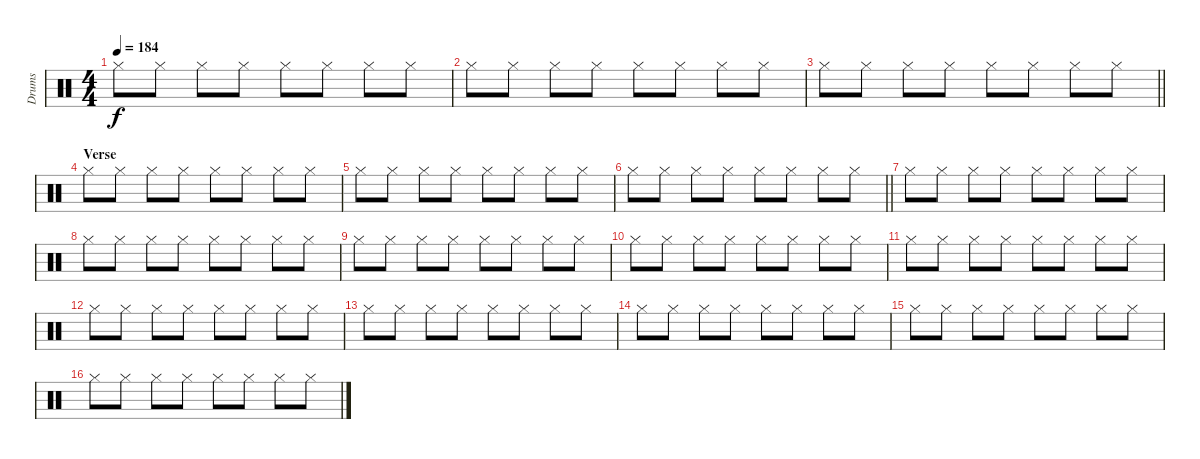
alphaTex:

\track ("Drums" "Drums") {instrument percussion}
\staff {score}
\articulation defaults
\ts (4 4)
\tempo 184
\clef neutral
\ks c "Hi-Hat (closed)".8{dy f} "Hi-Hat (closed)".8 "Hi-Hat (closed)".8 "Hi-Hat (closed)".8 "Hi-Hat (closed)".8 "Hi-Hat (closed)".8 "Hi-Hat (closed)".8 "Hi-Hat (closed)".8
|
"Hi-Hat (closed)".8 "Hi-Hat (closed)".8 "Hi-Hat (closed)".8 "Hi-Hat (closed)".8 "Hi-Hat (closed)".8 "Hi-Hat (closed)".8 "Hi-Hat (closed)".8 "Hi-Hat (closed)".8 |
\barLineRight lightlight "Hi-Hat (closed)".8 "Hi-Hat (closed)".8 "Hi-Hat (closed)".8 "Hi-Hat (closed)".8 "Hi-Hat (closed)".8 "Hi-Hat (closed)".8 "Hi-Hat (closed)".8 "Hi-Hat (closed)".8
|
\section ("" "Verse")
"Hi-Hat (closed)".8 "Hi-Hat (closed)".8 "Hi-Hat (closed)".8 "Hi-Hat (closed)".8 "Hi-Hat (closed)".8 "Hi-Hat (closed)".8 "Hi-Hat (closed)".8 "Hi-Hat (closed)".8 |
"Hi-Hat (closed)".8 "Hi-Hat (closed)".8 "Hi-Hat (closed)".8 "Hi-Hat (closed)".8 "Hi-Hat (closed)".8 "Hi-Hat (closed)".8 "Hi-Hat (closed)".8 "Hi-Hat (closed)".8 |
\barLineRight lightlight "Hi-Hat (closed)".8 "Hi-Hat (closed)".8 "Hi-Hat (closed)".8 "Hi-Hat (closed)".8 "Hi-Hat (closed)".8 "Hi-Hat (closed)".8 "Hi-Hat (closed)".8 "Hi-Hat (closed)".8
|
"Hi-Hat (closed)".8 "Hi-Hat (closed)".8 "Hi-Hat (closed)".8 "Hi-Hat (closed)".8 "Hi-Hat (closed)".8 "Hi-Hat (closed)".8 "Hi-Hat (closed)".8 "Hi-Hat (closed)".8 |
"Hi-Hat (closed)".8 "Hi-Hat (closed)".8 "Hi-Hat (closed)".8 "Hi-Hat (closed)".8 "Hi-Hat (closed)".8 "Hi-Hat (closed)".8 "Hi-Hat (closed)".8 "Hi-Hat (closed)".8 |
"Hi-Hat (closed)".8 "Hi-Hat (closed)".8 "Hi-Hat (closed)".8 "Hi-Hat (closed)".8 "Hi-Hat (closed)".8 "Hi-Hat (closed)".8 "Hi-Hat (closed)".8 "Hi-Hat (closed)".8 |
"Hi-Hat (closed)".8 "Hi-Hat (closed)".8 "Hi-Hat (closed)".8 "Hi-Hat (closed)".8 "Hi-Hat (closed)".8 "Hi-Hat (closed)".8 "Hi-Hat (closed)".8 "Hi-Hat (closed)".8 |
"Hi-Hat (closed)".8 "Hi-Hat (closed)".8 "Hi-Hat (closed)".8 "Hi-Hat (closed)".8 "Hi-Hat (closed)".8 "Hi-Hat (closed)".8 "Hi-Hat (closed)".8 "Hi-Hat (closed)".8 |
"Hi-Hat (closed)".8 "Hi-Hat (closed)".8 "Hi-Hat (closed)".8 "Hi-Hat (closed)".8 "Hi-Hat (closed)".8 "Hi-Hat (closed)".8 "Hi-Hat (closed)".8 "Hi-Hat (closed)".8 |
"Hi-Hat (closed)".8 "Hi-Hat (closed)".8 "Hi-Hat (closed)".8 "Hi-Hat (closed)".8 "Hi-Hat (closed)".8 "Hi-Hat (closed)".8 "Hi-Hat (closed)".8 "Hi-Hat (closed)".8 |
"Hi-Hat (closed)".8 "Hi-Hat (closed)".8 "Hi-Hat (closed)".8 "Hi-Hat (closed)".8 "Hi-Hat (closed)".8 "Hi-Hat (closed)".8 "Hi-Hat (closed)".8 "Hi-Hat (closed)".8 |
"Hi-Hat (closed)".8 "Hi-Hat (closed)".8 "Hi-Hat (closed)".8 "Hi-Hat (closed)".8 "Hi-Hat (closed)".8 "Hi-Hat (closed)".8 "Hi-Hat (closed)".8 "Hi-Hat (closed)".8 |
"Hi-Hat (closed)".8 "Hi-Hat (closed)".8 "Hi-Hat (closed)".8 "Hi-Hat (closed)".8 "Hi-Hat (closed)".8 "Hi-Hat (closed)".8 "Hi-Hat (closed)".8 "Hi-Hat (closed)".8
